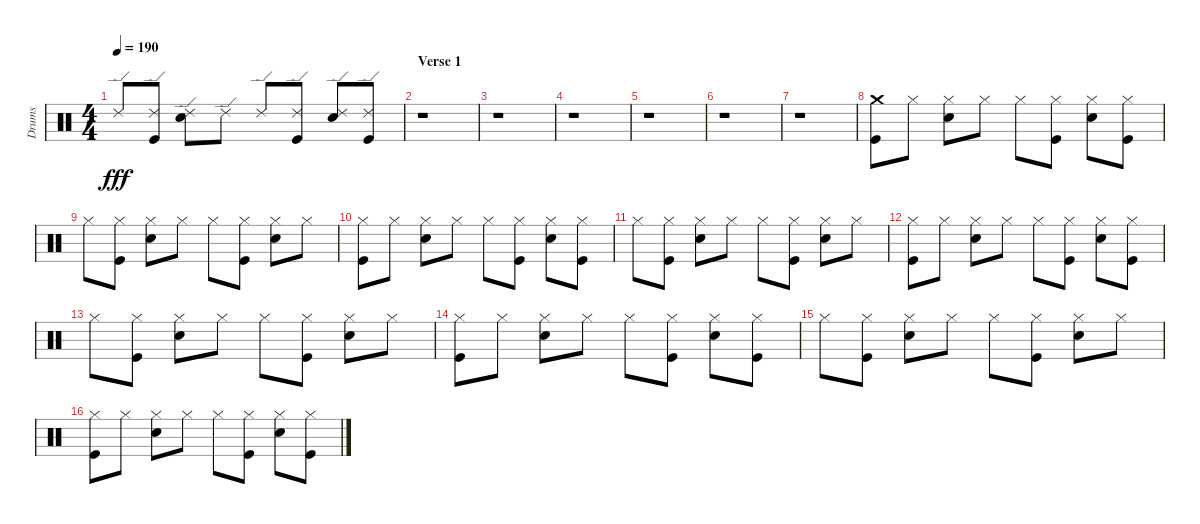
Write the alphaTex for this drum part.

\track ("Drums" "Drums") {instrument percussion}
\staff {score}
\articulation defaults
\ts (4 4)
\tempo 190
\clef neutral
\ks c "Ride (edge) 2".8{dy fff}
("Ride (edge) 2" "Kick (hit)").8 ("Ride (edge) 2" "Snare (hit) 2").8 "Ride (edge) 2".8 "Ride (edge) 2".8 ("Ride (edge) 2" "Kick (hit)").8 ("Ride (edge) 2" "Snare (hit) 2").8 ("Ride (edge) 2" "Kick (hit)").8 |
\section ("" "Verse 1")
r.1 |
r.1 |
r.1 |
r.1 |
r.1 |
r.1 |
("Crash medium (hit)" "Kick (hit)").8 "Hi-Hat (closed)".8 ("Hi-Hat (closed)" "Snare (hit) 2").8 "Hi-Hat (closed)".8 "Hi-Hat (closed)".8 ("Hi-Hat (closed)" "Kick (hit)").8 ("Hi-Hat (closed)" "Snare (hit) 2").8 ("Hi-Hat (closed)" "Kick (hit)").8 |
"Hi-Hat (closed)".8 ("Hi-Hat (closed)" "Kick (hit)").8 ("Hi-Hat (closed)" "Snare (hit) 2").8 "Hi-Hat (closed)".8 "Hi-Hat (closed)".8 ("Hi-Hat (closed)" "Kick (hit)").8 ("Hi-Hat (closed)" "Snare (hit) 2").8 "Hi-Hat (closed)".8 |
("Hi-Hat (closed)" "Kick (hit)").8 "Hi-Hat (closed)".8 ("Hi-Hat (closed)" "Snare (hit) 2").8 "Hi-Hat (closed)".8 "Hi-Hat (closed)".8 ("Hi-Hat (closed)" "Kick (hit)").8 ("Hi-Hat (closed)" "Snare (hit) 2").8 ("Hi-Hat (closed)" "Kick (hit)").8 |
"Hi-Hat (closed)".8 ("Hi-Hat (closed)" "Kick (hit)").8 ("Hi-Hat (closed)" "Snare (hit) 2").8 "Hi-Hat (closed)".8 "Hi-Hat (closed)".8 ("Hi-Hat (closed)" "Kick (hit)").8 ("Hi-Hat (closed)" "Snare (hit) 2").8 "Hi-Hat (closed)".8 |
("Hi-Hat (closed)" "Kick (hit)").8 "Hi-Hat (closed)".8 ("Hi-Hat (closed)" "Snare (hit) 2").8 "Hi-Hat (closed)".8 "Hi-Hat (closed)".8 ("Hi-Hat (closed)" "Kick (hit)").8 ("Hi-Hat (closed)" "Snare (hit) 2").8 ("Hi-Hat (closed)" "Kick (hit)").8 |
"Hi-Hat (closed)".8 ("Hi-Hat (closed)" "Kick (hit)").8 ("Hi-Hat (closed)" "Snare (hit) 2").8 "Hi-Hat (closed)".8 "Hi-Hat (closed)".8 ("Hi-Hat (closed)" "Kick (hit)").8 ("Hi-Hat (closed)" "Snare (hit) 2").8 "Hi-Hat (closed)".8 |
("Hi-Hat (closed)" "Kick (hit)").8 "Hi-Hat (closed)".8 ("Hi-Hat (closed)" "Snare (hit) 2").8 "Hi-Hat (closed)".8 "Hi-Hat (closed)".8 ("Hi-Hat (closed)" "Kick (hit)").8 ("Hi-Hat (closed)" "Snare (hit) 2").8 ("Hi-Hat (closed)" "Kick (hit)").8 |
"Hi-Hat (closed)".8 ("Hi-Hat (closed)" "Kick (hit)").8 ("Hi-Hat (closed)" "Snare (hit) 2").8 "Hi-Hat (closed)".8 "Hi-Hat (closed)".8 ("Hi-Hat (closed)" "Kick (hit)").8 ("Hi-Hat (closed)" "Snare (hit) 2").8 "Hi-Hat (closed)".8 |
("Hi-Hat (closed)" "Kick (hit)").8 "Hi-Hat (closed)".8 ("Hi-Hat (closed)" "Snare (hit) 2").8 "Hi-Hat (closed)".8 "Hi-Hat (closed)".8 ("Hi-Hat (closed)" "Kick (hit)").8 ("Hi-Hat (closed)" "Snare (hit) 2").8 ("Hi-Hat (closed)" "Kick (hit)").8
